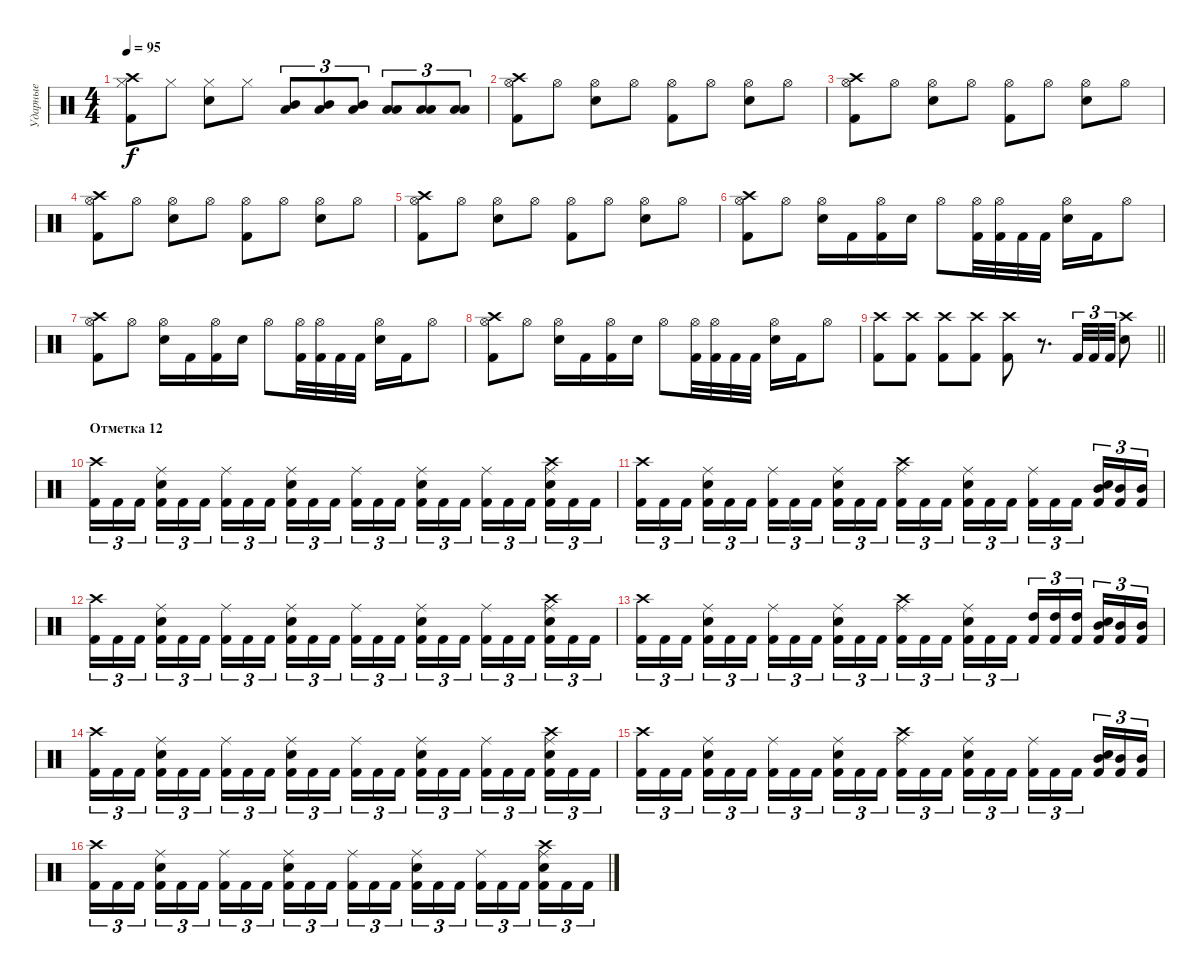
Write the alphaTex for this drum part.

\track ("Ударные" "Ударные") {instrument percussion}
\staff {score}
\articulation defaults
\ts (4 4)
\tempo 95
\clef neutral
\ks c
("Kick (hit) 2" "Hi-Hat (closed)" "Crash high (hit)").8{dy f} "Hi-Hat (closed)".8 ("Electric Snare (hit)" "Hi-Hat (closed)").8 "Hi-Hat (closed)".8 ("Mid Tom (hit)" "Low Tom (hit)").8{tu (3 2)} ("Mid Tom (hit)" "Low Tom (hit)").8{tu (3 2)} ("Mid Tom (hit)" "Low Tom (hit)").8{tu (3 2)} ("Low Floor Tom (hit)" "Low Tom (hit)").8{tu (3 2)} ("Low Floor Tom (hit)" "Low Tom (hit)").8{tu (3 2)} ("Low Floor Tom (hit)" "Low Tom (hit)").8{tu (3 2)} |
("Kick (hit) 2" "Hi-Hat (open)" "Crash high (hit)").8 "Hi-Hat (open)".8 ("Electric Snare (hit)" "Hi-Hat (open)").8 "Hi-Hat (open)".8 ("Kick (hit) 2" "Hi-Hat (open)").8 "Hi-Hat (open)".8 ("Electric Snare (hit)" "Hi-Hat (open)").8 "Hi-Hat (open)".8 |
("Kick (hit) 2" "Hi-Hat (open)" "Crash high (hit)").8 "Hi-Hat (open)".8 ("Electric Snare (hit)" "Hi-Hat (open)").8 "Hi-Hat (open)".8 ("Kick (hit) 2" "Hi-Hat (open)").8 "Hi-Hat (open)".8 ("Electric Snare (hit)" "Hi-Hat (open)").8 "Hi-Hat (open)".8 |
("Kick (hit) 2" "Hi-Hat (open)" "Crash high (hit)").8 "Hi-Hat (open)".8 ("Electric Snare (hit)" "Hi-Hat (open)").8 "Hi-Hat (open)".8 ("Kick (hit) 2" "Hi-Hat (open)").8 "Hi-Hat (open)".8 ("Electric Snare (hit)" "Hi-Hat (open)").8 "Hi-Hat (open)".8 |
("Kick (hit) 2" "Hi-Hat (open)" "Crash high (hit)").8 "Hi-Hat (open)".8 ("Electric Snare (hit)" "Hi-Hat (open)").8 "Hi-Hat (open)".8 ("Kick (hit) 2" "Hi-Hat (open)").8 "Hi-Hat (open)".8 ("Electric Snare (hit)" "Hi-Hat (open)").8 "Hi-Hat (open)".8 |
("Kick (hit) 2" "Hi-Hat (open)" "Crash high (hit)").8 "Hi-Hat (open)".8 ("Electric Snare (hit)" "Hi-Hat (open)").16 "Kick (hit) 2".16 ("Kick (hit) 2" "Hi-Hat (open)").16 "Electric Snare (hit)".16 "Hi-Hat (open)".8 ("Kick (hit) 2" "Hi-Hat (open)").32 ("Kick (hit) 2" "Hi-Hat (open)").32 "Kick (hit) 2".32 "Kick (hit) 2".32 ("Electric Snare (hit)" "Hi-Hat (open)").16 "Kick (hit) 2".16 "Hi-Hat (open)".8 |
("Kick (hit) 2" "Hi-Hat (open)" "Crash high (hit)").8 "Hi-Hat (open)".8 ("Electric Snare (hit)" "Hi-Hat (open)").16 "Kick (hit) 2".16 ("Kick (hit) 2" "Hi-Hat (open)").16 "Electric Snare (hit)".16 "Hi-Hat (open)".8 ("Kick (hit) 2" "Hi-Hat (open)").32 ("Kick (hit) 2" "Hi-Hat (open)").32 "Kick (hit) 2".32 "Kick (hit) 2".32 ("Electric Snare (hit)" "Hi-Hat (open)").16 "Kick (hit) 2".16 "Hi-Hat (open)".8 |
("Kick (hit) 2" "Hi-Hat (open)" "Crash high (hit)").8 "Hi-Hat (open)".8 ("Electric Snare (hit)" "Hi-Hat (open)").16 "Kick (hit) 2".16 ("Kick (hit) 2" "Hi-Hat (open)").16 "Electric Snare (hit)".16 "Hi-Hat (open)".8 ("Kick (hit) 2" "Hi-Hat (open)").32 ("Kick (hit) 2" "Hi-Hat (open)").32 "Kick (hit) 2".32 "Kick (hit) 2".32 ("Electric Snare (hit)" "Hi-Hat (open)").16 "Kick (hit) 2".16 "Hi-Hat (open)".8 |
\barLineRight lightlight
("Kick (hit) 2" "Crash high (hit)").8 ("Kick (hit) 2" "Crash high (hit)").8 ("Kick (hit) 2" "Crash high (hit)").8 ("Kick (hit) 2" "Crash high (hit)").8 ("Kick (hit) 2" "Crash high (hit)").8 r.8{d} "Kick (hit) 2".32{tu (3 2)} "Kick (hit) 2".32{tu (3 2)} "Kick (hit) 2".32{tu (3 2)} ("Electric Snare (hit)" "Crash high (hit)").8 |
\section ("" "Отметка 12")
("Kick (hit) 2" "Crash high (hit)").16{tu (3 2)} "Kick (hit) 2".16{tu (3 2)} "Kick (hit) 2".16{tu (3 2) beam splitsecondary} ("Electric Snare (hit)" "Kick (hit) 2" "Ride (middle)").16{tu (3 2)} "Kick (hit) 2".16{tu (3 2)} "Kick (hit) 2".16{tu (3 2)} ("Kick (hit) 2" "Ride (middle)").16{tu (3 2)} "Kick (hit) 2".16{tu (3 2)} "Kick (hit) 2".16{tu (3 2) beam splitsecondary} ("Electric Snare (hit)" "Kick (hit) 2" "Ride (middle)").16{tu (3 2)} "Kick (hit) 2".16{tu (3 2)} "Kick (hit) 2".16{tu (3 2)} ("Kick (hit) 2" "Ride (middle)").16{tu (3 2)} "Kick (hit) 2".16{tu (3 2)} "Kick (hit) 2".16{tu (3 2) beam splitsecondary} ("Electric Snare (hit)" "Kick (hit) 2" "Ride (middle)").16{tu (3 2)} "Kick (hit) 2".16{tu (3 2)} "Kick (hit) 2".16{tu (3 2)} ("Kick (hit) 2" "Ride (middle)").16{tu (3 2)} "Kick (hit) 2".16{tu (3 2)} "Kick (hit) 2".16{tu (3 2) beam splitsecondary} ("Electric Snare (hit)" "Kick (hit) 2" "Ride (middle)" "Crash high (hit)").16{tu (3 2)} "Kick (hit) 2".16{tu (3 2)} "Kick (hit) 2".16{tu (3 2)} |
("Kick (hit) 2" "Crash high (hit)").16{tu (3 2)} "Kick (hit) 2".16{tu (3 2)} "Kick (hit) 2".16{tu (3 2) beam splitsecondary} ("Electric Snare (hit)" "Kick (hit) 2" "Ride (middle)").16{tu (3 2)} "Kick (hit) 2".16{tu (3 2)} "Kick (hit) 2".16{tu (3 2)} ("Kick (hit) 2" "Ride (middle)").16{tu (3 2)} "Kick (hit) 2".16{tu (3 2)} "Kick (hit) 2".16{tu (3 2) beam splitsecondary} ("Electric Snare (hit)" "Kick (hit) 2" "Ride (middle)").16{tu (3 2)} "Kick (hit) 2".16{tu (3 2)} "Kick (hit) 2".16{tu (3 2)} ("Kick (hit) 2" "Ride (middle)" "Crash high (hit)").16{tu (3 2)} "Kick (hit) 2".16{tu (3 2)} "Kick (hit) 2".16{tu (3 2) beam splitsecondary} ("Electric Snare (hit)" "Kick (hit) 2" "Ride (middle)").16{tu (3 2)} "Kick (hit) 2".16{tu (3 2)} "Kick (hit) 2".16{tu (3 2)} ("Kick (hit) 2" "Ride (middle)").16{tu (3 2)} "Kick (hit) 2".16{tu (3 2)} "Kick (hit) 2".16{tu (3 2) beam splitsecondary} ("Electric Snare (hit)" "Kick (hit) 2" "Mid Tom (hit)").16{tu (3 2)} ("Kick (hit) 2" "Mid Tom (hit)").16{tu (3 2)} ("Kick (hit) 2" "Mid Tom (hit)").16{tu (3 2)} |
("Kick (hit) 2" "Crash high (hit)").16{tu (3 2)} "Kick (hit) 2".16{tu (3 2)} "Kick (hit) 2".16{tu (3 2) beam splitsecondary} ("Electric Snare (hit)" "Kick (hit) 2" "Ride (middle)").16{tu (3 2)} "Kick (hit) 2".16{tu (3 2)} "Kick (hit) 2".16{tu (3 2)} ("Kick (hit) 2" "Ride (middle)").16{tu (3 2)} "Kick (hit) 2".16{tu (3 2)} "Kick (hit) 2".16{tu (3 2) beam splitsecondary} ("Electric Snare (hit)" "Kick (hit) 2" "Ride (middle)").16{tu (3 2)} "Kick (hit) 2".16{tu (3 2)} "Kick (hit) 2".16{tu (3 2)} ("Kick (hit) 2" "Ride (middle)").16{tu (3 2)} "Kick (hit) 2".16{tu (3 2)} "Kick (hit) 2".16{tu (3 2) beam splitsecondary} ("Electric Snare (hit)" "Kick (hit) 2" "Ride (middle)").16{tu (3 2)} "Kick (hit) 2".16{tu (3 2)} "Kick (hit) 2".16{tu (3 2)} ("Kick (hit) 2" "Ride (middle)").16{tu (3 2)} "Kick (hit) 2".16{tu (3 2)} "Kick (hit) 2".16{tu (3 2) beam splitsecondary} ("Electric Snare (hit)" "Kick (hit) 2" "Ride (middle)" "Crash high (hit)").16{tu (3 2)} "Kick (hit) 2".16{tu (3 2)} "Kick (hit) 2".16{tu (3 2)} |
("Kick (hit) 2" "Crash high (hit)").16{tu (3 2)} "Kick (hit) 2".16{tu (3 2)} "Kick (hit) 2".16{tu (3 2) beam splitsecondary} ("Electric Snare (hit)" "Kick (hit) 2" "Ride (middle)").16{tu (3 2)} "Kick (hit) 2".16{tu (3 2)} "Kick (hit) 2".16{tu (3 2)} ("Kick (hit) 2" "Ride (middle)").16{tu (3 2)} "Kick (hit) 2".16{tu (3 2)} "Kick (hit) 2".16{tu (3 2) beam splitsecondary} ("Electric Snare (hit)" "Kick (hit) 2" "Ride (middle)").16{tu (3 2)} "Kick (hit) 2".16{tu (3 2)} "Kick (hit) 2".16{tu (3 2)} ("Kick (hit) 2" "Ride (middle)" "Crash high (hit)").16{tu (3 2)} "Kick (hit) 2".16{tu (3 2)} "Kick (hit) 2".16{tu (3 2) beam splitsecondary} ("Electric Snare (hit)" "Kick (hit) 2" "Ride (middle)").16{tu (3 2)} "Kick (hit) 2".16{tu (3 2)} "Kick (hit) 2".16{tu (3 2)} ("Kick (hit) 2" "High Tom (hit)").16{tu (3 2)} ("Kick (hit) 2" "High Tom (hit)").16{tu (3 2)} ("Kick (hit) 2" "High Tom (hit)").16{tu (3 2) beam splitsecondary} ("Electric Snare (hit)" "Kick (hit) 2" "Mid Tom (hit)").16{tu (3 2)} ("Kick (hit) 2" "Mid Tom (hit)").16{tu (3 2)} ("Kick (hit) 2" "Mid Tom (hit)").16{tu (3 2)} |
("Kick (hit) 2" "Crash high (hit)").16{tu (3 2)} "Kick (hit) 2".16{tu (3 2)} "Kick (hit) 2".16{tu (3 2) beam splitsecondary} ("Electric Snare (hit)" "Kick (hit) 2" "Ride (middle)").16{tu (3 2)} "Kick (hit) 2".16{tu (3 2)} "Kick (hit) 2".16{tu (3 2)} ("Kick (hit) 2" "Ride (middle)").16{tu (3 2)} "Kick (hit) 2".16{tu (3 2)} "Kick (hit) 2".16{tu (3 2) beam splitsecondary} ("Electric Snare (hit)" "Kick (hit) 2" "Ride (middle)").16{tu (3 2)} "Kick (hit) 2".16{tu (3 2)} "Kick (hit) 2".16{tu (3 2)} ("Kick (hit) 2" "Ride (middle)").16{tu (3 2)} "Kick (hit) 2".16{tu (3 2)} "Kick (hit) 2".16{tu (3 2) beam splitsecondary} ("Electric Snare (hit)" "Kick (hit) 2" "Ride (middle)").16{tu (3 2)} "Kick (hit) 2".16{tu (3 2)} "Kick (hit) 2".16{tu (3 2)} ("Kick (hit) 2" "Ride (middle)").16{tu (3 2)} "Kick (hit) 2".16{tu (3 2)} "Kick (hit) 2".16{tu (3 2) beam splitsecondary} ("Electric Snare (hit)" "Kick (hit) 2" "Ride (middle)" "Crash high (hit)").16{tu (3 2)} "Kick (hit) 2".16{tu (3 2)} "Kick (hit) 2".16{tu (3 2)} |
("Kick (hit) 2" "Crash high (hit)").16{tu (3 2)} "Kick (hit) 2".16{tu (3 2)} "Kick (hit) 2".16{tu (3 2) beam splitsecondary} ("Electric Snare (hit)" "Kick (hit) 2" "Ride (middle)").16{tu (3 2)} "Kick (hit) 2".16{tu (3 2)} "Kick (hit) 2".16{tu (3 2)} ("Kick (hit) 2" "Ride (middle)").16{tu (3 2)} "Kick (hit) 2".16{tu (3 2)} "Kick (hit) 2".16{tu (3 2) beam splitsecondary} ("Electric Snare (hit)" "Kick (hit) 2" "Ride (middle)").16{tu (3 2)} "Kick (hit) 2".16{tu (3 2)} "Kick (hit) 2".16{tu (3 2)} ("Kick (hit) 2" "Ride (middle)" "Crash high (hit)").16{tu (3 2)} "Kick (hit) 2".16{tu (3 2)} "Kick (hit) 2".16{tu (3 2) beam splitsecondary} ("Electric Snare (hit)" "Kick (hit) 2" "Ride (middle)").16{tu (3 2)} "Kick (hit) 2".16{tu (3 2)} "Kick (hit) 2".16{tu (3 2)} ("Kick (hit) 2" "Ride (middle)").16{tu (3 2)} "Kick (hit) 2".16{tu (3 2)} "Kick (hit) 2".16{tu (3 2) beam splitsecondary} ("Electric Snare (hit)" "Kick (hit) 2" "Mid Tom (hit)").16{tu (3 2)} ("Kick (hit) 2" "Mid Tom (hit)").16{tu (3 2)} ("Kick (hit) 2" "Mid Tom (hit)").16{tu (3 2)} |
("Kick (hit) 2" "Crash high (hit)").16{tu (3 2)} "Kick (hit) 2".16{tu (3 2)} "Kick (hit) 2".16{tu (3 2) beam splitsecondary} ("Electric Snare (hit)" "Kick (hit) 2" "Ride (middle)").16{tu (3 2)} "Kick (hit) 2".16{tu (3 2)} "Kick (hit) 2".16{tu (3 2)} ("Kick (hit) 2" "Ride (middle)").16{tu (3 2)} "Kick (hit) 2".16{tu (3 2)} "Kick (hit) 2".16{tu (3 2) beam splitsecondary} ("Electric Snare (hit)" "Kick (hit) 2" "Ride (middle)").16{tu (3 2)} "Kick (hit) 2".16{tu (3 2)} "Kick (hit) 2".16{tu (3 2)} ("Kick (hit) 2" "Ride (middle)").16{tu (3 2)} "Kick (hit) 2".16{tu (3 2)} "Kick (hit) 2".16{tu (3 2) beam splitsecondary} ("Electric Snare (hit)" "Kick (hit) 2" "Ride (middle)").16{tu (3 2)} "Kick (hit) 2".16{tu (3 2)} "Kick (hit) 2".16{tu (3 2)} ("Kick (hit) 2" "Ride (middle)").16{tu (3 2)} "Kick (hit) 2".16{tu (3 2)} "Kick (hit) 2".16{tu (3 2) beam splitsecondary} ("Electric Snare (hit)" "Kick (hit) 2" "Ride (middle)" "Crash high (hit)").16{tu (3 2)} "Kick (hit) 2".16{tu (3 2)} "Kick (hit) 2".16{tu (3 2)}
